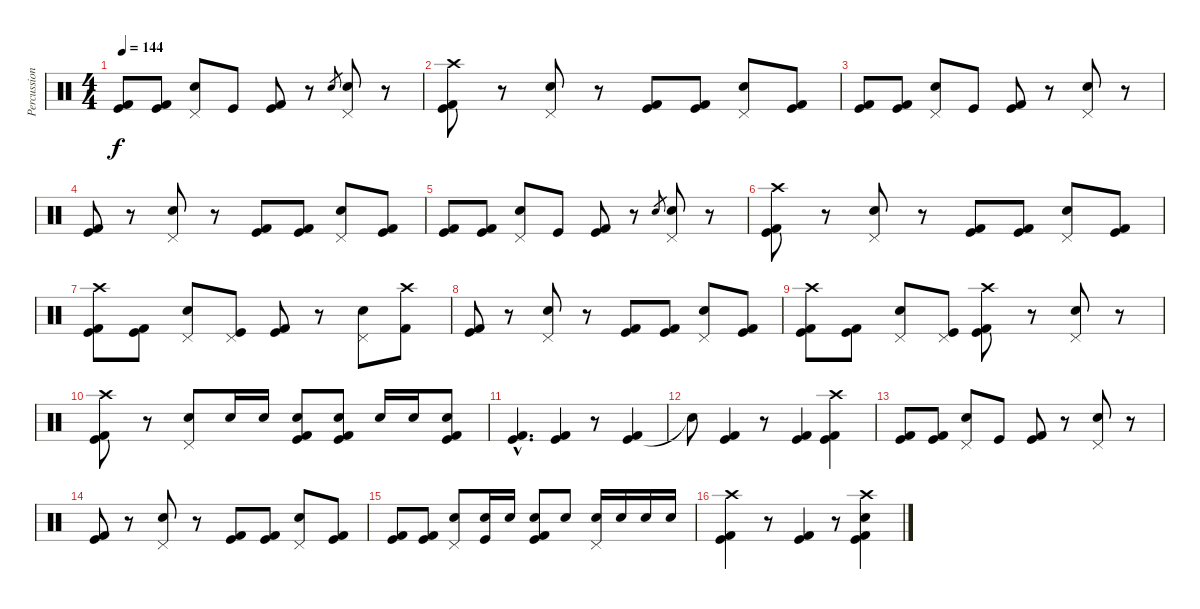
\track ("Percussions" "Percussion") {instrument percussion}
\staff {score}
\articulation defaults
\ts (4 4)
\tempo 144
\clef neutral
\ks c
("Kick (hit)" "Kick (hit) 2").8{dy f} ("Kick (hit)" "Kick (hit) 2").8 ("Pedal Hi-Hat (hit)" "Snare (hit) 2").8 "Kick (hit)".8 ("Kick (hit)" "Kick (hit) 2").8 r.8 "Snare (hit) 2".8{gr} ("Pedal Hi-Hat (hit)" "Snare (hit) 2").8 r.8 |
("Crash high (hit)" "Kick (hit)" "Kick (hit) 2").8 r.8 ("Pedal Hi-Hat (hit)" "Snare (hit) 2").8 r.8 ("Kick (hit)" "Kick (hit) 2").8 ("Kick (hit)" "Kick (hit) 2").8 ("Pedal Hi-Hat (hit)" "Snare (hit) 2").8 ("Kick (hit)" "Kick (hit) 2").8 |
("Kick (hit)" "Kick (hit) 2").8 ("Kick (hit)" "Kick (hit) 2").8 ("Pedal Hi-Hat (hit)" "Snare (hit) 2").8 "Kick (hit)".8 ("Kick (hit)" "Kick (hit) 2").8 r.8 ("Pedal Hi-Hat (hit)" "Snare (hit) 2").8 r.8 |
("Kick (hit)" "Kick (hit) 2").8 r.8 ("Pedal Hi-Hat (hit)" "Snare (hit) 2").8 r.8 ("Kick (hit)" "Kick (hit) 2").8 ("Kick (hit)" "Kick (hit) 2").8 ("Pedal Hi-Hat (hit)" "Snare (hit) 2").8 ("Kick (hit)" "Kick (hit) 2").8 |
("Kick (hit)" "Kick (hit) 2").8 ("Kick (hit)" "Kick (hit) 2").8 ("Pedal Hi-Hat (hit)" "Snare (hit) 2").8 "Kick (hit)".8 ("Kick (hit)" "Kick (hit) 2").8 r.8 "Snare (hit) 2".8{gr} ("Pedal Hi-Hat (hit)" "Snare (hit) 2").8 r.8 |
("Crash high (hit)" "Kick (hit)" "Kick (hit) 2").8 r.8 ("Pedal Hi-Hat (hit)" "Snare (hit) 2").8 r.8 ("Kick (hit)" "Kick (hit) 2").8 ("Kick (hit)" "Kick (hit) 2").8 ("Pedal Hi-Hat (hit)" "Snare (hit) 2").8 ("Kick (hit)" "Kick (hit) 2").8 |
("Crash high (hit)" "Kick (hit)" "Kick (hit) 2").8 ("Kick (hit)" "Kick (hit) 2").8 ("Pedal Hi-Hat (hit)" "Snare (hit) 2").8 ("Pedal Hi-Hat (hit)" "Kick (hit)").8 ("Kick (hit)" "Kick (hit) 2").8 r.8 ("Pedal Hi-Hat (hit)" "Snare (hit) 2").8 ("Crash high (hit)" "Kick (hit) 2").8 |
("Kick (hit)" "Kick (hit) 2").8 r.8 ("Pedal Hi-Hat (hit)" "Snare (hit) 2").8 r.8 ("Kick (hit)" "Kick (hit) 2").8 ("Kick (hit)" "Kick (hit) 2").8 ("Pedal Hi-Hat (hit)" "Snare (hit) 2").8 ("Kick (hit)" "Kick (hit) 2").8 |
("Crash high (hit)" "Kick (hit)" "Kick (hit) 2").8 ("Kick (hit)" "Kick (hit) 2").8 ("Pedal Hi-Hat (hit)" "Snare (hit) 2").8 ("Pedal Hi-Hat (hit)" "Kick (hit)").8 ("Crash high (hit)" "Kick (hit)" "Kick (hit) 2").8 r.8 ("Pedal Hi-Hat (hit)" "Snare (hit) 2").8 r.8 |
("Crash high (hit)" "Kick (hit)" "Kick (hit) 2").8 r.8 ("Electric Snare (hit)" "Pedal Hi-Hat (hit)").8 "Electric Snare (hit)".16 "Electric Snare (hit)".16 ("Electric Snare (hit)" "Kick (hit)" "Kick (hit) 2").8 ("Electric Snare (hit)" "Kick (hit)" "Kick (hit) 2").8 "Electric Snare (hit)".16 "Electric Snare (hit)".16 ("Electric Snare (hit)" "Kick (hit)" "Kick (hit) 2").8 |
("Kick (hit)"{hac} "Kick (hit) 2"{hac}).4{d} ("Kick (hit)" "Kick (hit) 2").4 r.8 ("Kick (hit)" "Kick (hit) 2").4 |
"Snare (hit)"{t}.8 ("Kick (hit)" "Kick (hit) 2").4 r.8 ("Kick (hit)" "Kick (hit) 2").4 ("Crash high (hit)" "Kick (hit)" "Kick (hit) 2").4 |
("Kick (hit)" "Kick (hit) 2").8 ("Kick (hit)" "Kick (hit) 2").8 ("Pedal Hi-Hat (hit)" "Snare (hit) 2").8 "Kick (hit)".8 ("Kick (hit)" "Kick (hit) 2").8 r.8 ("Pedal Hi-Hat (hit)" "Snare (hit) 2").8 r.8 |
("Kick (hit)" "Kick (hit) 2").8 r.8 ("Pedal Hi-Hat (hit)" "Snare (hit) 2").8 r.8 ("Kick (hit)" "Kick (hit) 2").8 ("Kick (hit)" "Kick (hit) 2").8 ("Pedal Hi-Hat (hit)" "Snare (hit) 2").8 ("Kick (hit)" "Kick (hit) 2").8 |
("Kick (hit)" "Kick (hit) 2").8 ("Kick (hit)" "Kick (hit) 2").8 ("Pedal Hi-Hat (hit)" "Electric Snare (hit)").8 ("Electric Snare (hit)" "Kick (hit)").16 "Electric Snare (hit)".16 ("Electric Snare (hit)" "Kick (hit)" "Kick (hit) 2").8 "Electric Snare (hit)".8 ("Pedal Hi-Hat (hit)" "Electric Snare (hit)").16 "Electric Snare (hit)".16 "Electric Snare (hit)".16 "Electric Snare (hit)".16 |
("Crash high (hit)" "Kick (hit)" "Kick (hit) 2").4 r.8 ("Kick (hit)" "Kick (hit) 2").4 r.8 ("Crash high (hit)" "Snare (hit) 2" "Kick (hit)" "Kick (hit) 2").4
